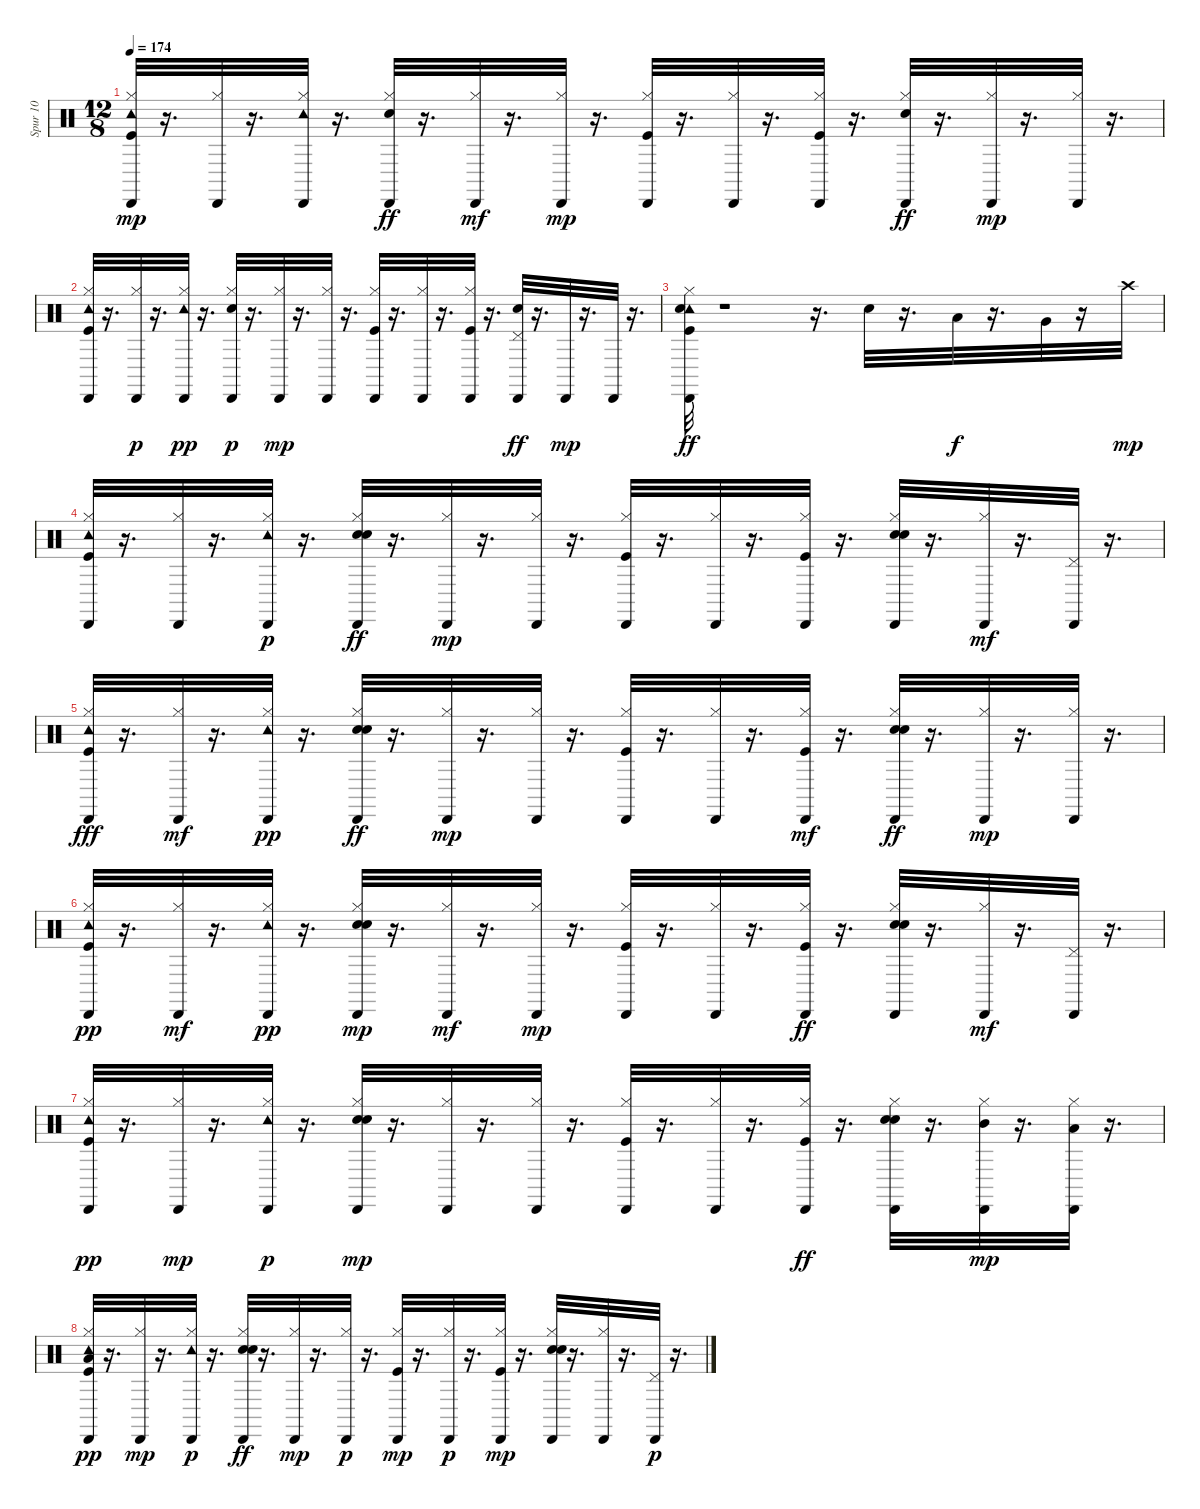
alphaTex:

\track ("Spur 10" "Spur 10") {instrument percussion}
\staff {score}
\articulation defaults
\ts (12 8)
\tempo 174
\clef neutral
\ks c
("Tambourine (hit)" "Hi-Hat (closed)" "Kick (hit)" "Cabasa (hit)").32{dy mp} r.16{d} ("Cabasa (hit)" "Hi-Hat (closed)").32 r.16{d} ("Tambourine (hit)" "Hi-Hat (closed)" "Cabasa (hit)").32 r.16{d} ("Cabasa (hit)" "Hi-Hat (closed)" "Electric Snare (hit)").32{dy ff} r.16{d} ("Cabasa (hit)" "Hi-Hat (closed)").32{dy mf} r.16{d} ("Hi-Hat (closed)" "Cabasa (hit)").32{dy mp} r.16{d} ("Kick (hit)" "Hi-Hat (closed)" "Cabasa (hit)").32 r.16{d} ("Cabasa (hit)" "Hi-Hat (closed)").32 r.16{d} ("Kick (hit)" "Hi-Hat (closed)" "Cabasa (hit)").32 r.16{d} ("Cabasa (hit)" "Hi-Hat (closed)" "Electric Snare (hit)").32{dy ff} r.16{d} ("Hi-Hat (closed)" "Cabasa (hit)").32{dy mp} r.16{d} ("Hi-Hat (closed)" "Cabasa (hit)").32 r.16{d} |
("Hi-Hat (closed)" "Kick (hit)" "Tambourine (hit)" "Cabasa (hit)").32 r.16{d} ("Hi-Hat (closed)" "Cabasa (hit)").32{dy p} r.16{d} ("Hi-Hat (closed)" "Cabasa (hit)" "Tambourine (hit)").32{dy pp} r.16{d} ("Hi-Hat (closed)" "Electric Snare (hit)" "Cabasa (hit)").32{dy p} r.16{d} ("Hi-Hat (closed)" "Cabasa (hit)").32{dy mp} r.16{d} ("Hi-Hat (closed)" "Cabasa (hit)").32 r.16{d} ("Hi-Hat (closed)" "Kick (hit)" "Cabasa (hit)").32 r.16{d} ("Cabasa (hit)" "Hi-Hat (closed)").32 r.16{d} ("Hi-Hat (closed)" "Cabasa (hit)" "Kick (hit)").32 r.16{d} ("Cabasa (hit)" "Pedal Hi-Hat (hit)" "Electric Snare (hit)").32{dy ff} r.16{d} "Cabasa (hit)".32{dy mp} r.16{d} "Cabasa (hit)".32 r.16{d} |
("Tambourine (hit)" "Hi-Hat (closed)" "Cabasa (hit)" "Electric Snare (hit)" "Kick (hit)").32{dy ff} r.1 r.16{d} "Snare (hit) 2".32 r.16{d} "Low Tom (hit)".32{dy f} r.16{d} "Very Low Tom (hit)".32 r.16 "Crash high (hit)".32{dy mp} |
("Tambourine (hit)" "Kick (hit)" "Cabasa (hit)" "Hi-Hat (closed)").32 r.16{d} ("Cabasa (hit)" "Hi-Hat (closed)").32 r.16{d} ("Hi-Hat (closed)" "Tambourine (hit)" "Cabasa (hit)").32{dy p} r.16{d} ("Hi-Hat (closed)" "Hand Clap (hit)" "Cabasa (hit)" "Electric Snare (hit)").32{dy ff} r.16{d} ("Hi-Hat (closed)" "Cabasa (hit)").32{dy mp} r.16{d} ("Hi-Hat (closed)" "Cabasa (hit)").32 r.16{d} ("Kick (hit)" "Hi-Hat (closed)" "Cabasa (hit)").32 r.16{d} ("Cabasa (hit)" "Hi-Hat (closed)").32 r.16{d} ("Hi-Hat (closed)" "Kick (hit)" "Cabasa (hit)").32 r.16{d} ("Hi-Hat (closed)" "Hand Clap (hit)" "Electric Snare (hit)" "Cabasa (hit)").32 r.16{d} ("Cabasa (hit)" "Hi-Hat (closed)").32{dy mf} r.16{d} ("Cabasa (hit)" "Pedal Hi-Hat (hit)").32 r.16{d} |
("Tambourine (hit)" "Cabasa (hit)" "Hi-Hat (closed)" "Kick (hit)").32{dy fff} r.16{d} ("Cabasa (hit)" "Hi-Hat (closed)").32{dy mf} r.16{d} ("Hi-Hat (closed)" "Cabasa (hit)" "Tambourine (hit)").32{dy pp} r.16{d} ("Hi-Hat (closed)" "Cabasa (hit)" "Electric Snare (hit)" "Hand Clap (hit)").32{dy ff} r.16{d} ("Hi-Hat (closed)" "Cabasa (hit)").32{dy mp} r.16{d} ("Hi-Hat (closed)" "Cabasa (hit)").32 r.16{d} ("Kick (hit)" "Cabasa (hit)" "Hi-Hat (closed)").32 r.16{d} ("Hi-Hat (closed)" "Cabasa (hit)").32 r.16{d} ("Cabasa (hit)" "Hi-Hat (closed)" "Kick (hit)").32{dy mf} r.16{d} ("Cabasa (hit)" "Hi-Hat (closed)" "Hand Clap (hit)" "Electric Snare (hit)").32{dy ff} r.16{d} ("Hi-Hat (closed)" "Cabasa (hit)").32{dy mp} r.16{d} ("Hi-Hat (closed)" "Cabasa (hit)").32 r.16{d} |
("Hi-Hat (closed)" "Kick (hit)" "Cabasa (hit)" "Tambourine (hit)").32{dy pp} r.16{d} ("Cabasa (hit)" "Hi-Hat (closed)").32{dy mf} r.16{d} ("Hi-Hat (closed)" "Cabasa (hit)" "Tambourine (hit)").32{dy pp} r.16{d} ("Hi-Hat (closed)" "Electric Snare (hit)" "Hand Clap (hit)" "Cabasa (hit)").32{dy mp} r.16{d} ("Cabasa (hit)" "Hi-Hat (closed)").32{dy mf} r.16{d} ("Hi-Hat (closed)" "Cabasa (hit)").32{dy mp} r.16{d} ("Cabasa (hit)" "Kick (hit)" "Hi-Hat (closed)").32 r.16{d} ("Cabasa (hit)" "Hi-Hat (closed)").32 r.16{d} ("Cabasa (hit)" "Hi-Hat (closed)" "Kick (hit)").32{dy ff} r.16{d} ("Hand Clap (hit)" "Cabasa (hit)" "Hi-Hat (closed)" "Electric Snare (hit)").32 r.16{d} ("Cabasa (hit)" "Hi-Hat (closed)").32{dy mf} r.16{d} ("Cabasa (hit)" "Pedal Hi-Hat (hit)").32 r.16{d} |
("Kick (hit)" "Cabasa (hit)" "Hi-Hat (closed)" "Tambourine (hit)").32{dy pp} r.16{d} ("Hi-Hat (closed)" "Cabasa (hit)").32{dy mp} r.16{d} ("Hi-Hat (closed)" "Cabasa (hit)" "Tambourine (hit)").32{dy p} r.16{d} ("Hi-Hat (closed)" "Hand Clap (hit)" "Electric Snare (hit)" "Cabasa (hit)").32{dy mp} r.16{d} ("Hi-Hat (closed)" "Cabasa (hit)").32 r.16{d} ("Hi-Hat (closed)" "Cabasa (hit)").32 r.16{d} ("Hi-Hat (closed)" "Kick (hit)" "Cabasa (hit)").32 r.16{d} ("Hi-Hat (closed)" "Cabasa (hit)").32 r.16{d} ("Hi-Hat (closed)" "Cabasa (hit)" "Kick (hit)").32{dy ff} r.16{d} ("Hi-Hat (closed)" "Hand Clap (hit)" "Cabasa (hit)" "Electric Snare (hit)").32 r.16{d} ("Hi-Hat (closed)" "Mid Tom (hit)" "Cabasa (hit)").32{dy mp} r.16{d} ("Hi-Hat (closed)" "Low Tom (hit)" "Cabasa (hit)").32 r.16{d} |
("Hi-Hat (closed)" "Kick (hit)" "Low Floor Tom (hit)" "Cabasa (hit)" "Tambourine (hit)").32{dy pp} r.16{d} ("Hi-Hat (closed)" "Cabasa (hit)").32{dy mp} r.16{d} ("Hi-Hat (closed)" "Cabasa (hit)" "Tambourine (hit)").32{dy p} r.16{d} ("Hi-Hat (closed)" "Hand Clap (hit)" "Cabasa (hit)" "Electric Snare (hit)").32{dy ff} r.16{d} ("Hi-Hat (closed)" "Cabasa (hit)").32{dy mp} r.16{d} ("Hi-Hat (closed)" "Cabasa (hit)").32{dy p} r.16{d} ("Hi-Hat (closed)" "Kick (hit)" "Cabasa (hit)").32{dy mp} r.16{d} ("Hi-Hat (closed)" "Cabasa (hit)").32{dy p} r.16{d} ("Hi-Hat (closed)" "Kick (hit)" "Cabasa (hit)").32{dy mp} r.16{d} ("Hi-Hat (closed)" "Hand Clap (hit)" "Electric Snare (hit)" "Cabasa (hit)").32 r.16{d} ("Hi-Hat (closed)" "Cabasa (hit)").32 r.16{d} ("Pedal Hi-Hat (hit)" "Cabasa (hit)").32{dy p} r.16{d}
